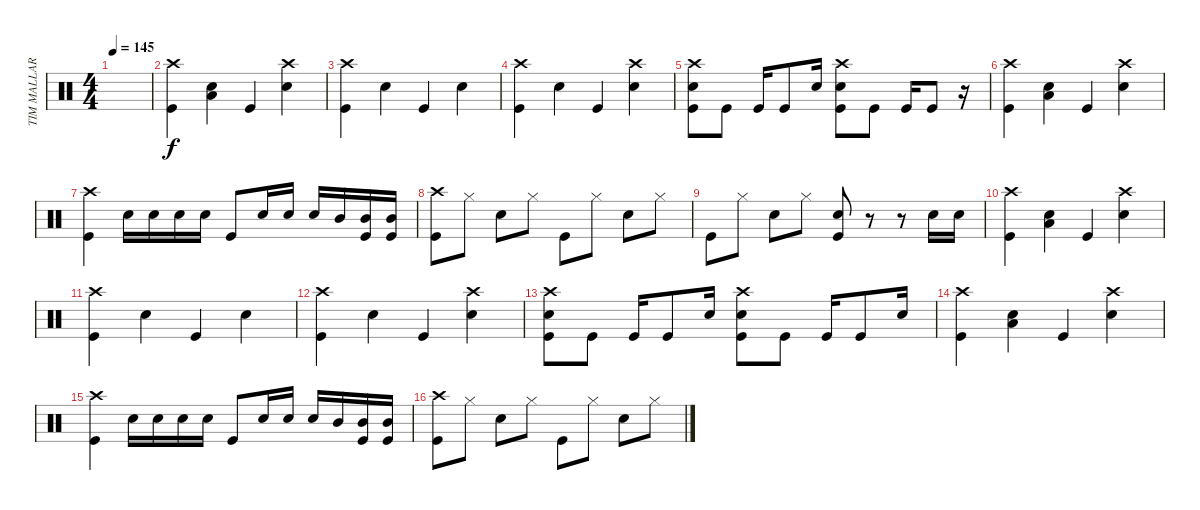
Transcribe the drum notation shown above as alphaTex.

\track ("TIM MALLARE - drums" "TIM MALLAR") {instrument percussion}
\staff {score}
\articulation defaults
\ts (4 4)
\tempo 145
\clef neutral
\ks c
|
("Crash high (hit)" "Kick (hit)").4 ("Electric Snare (hit)" "Low Tom (hit)").4 "Kick (hit)".4 ("Crash high (hit)" "Electric Snare (hit)").4 |
("Crash high (hit)" "Kick (hit)").4 "Electric Snare (hit)".4 "Kick (hit)".4 "Electric Snare (hit)".4 |
("Crash high (hit)" "Kick (hit)").4 "Electric Snare (hit)".4 "Kick (hit)".4 ("Crash high (hit)" "Electric Snare (hit)").4 |
("Crash high (hit)" "Electric Snare (hit)" "Kick (hit)").8 "Kick (hit)".8 "Kick (hit)".16 "Kick (hit)".8 "Electric Snare (hit)".16 ("Crash high (hit)" "Electric Snare (hit)" "Kick (hit)").8 "Kick (hit)".8 "Kick (hit)".16 "Kick (hit)".8 r.16 |
("Crash high (hit)" "Kick (hit)").4 ("Electric Snare (hit)" "Low Tom (hit)").4 "Kick (hit)".4 ("Crash high (hit)" "Electric Snare (hit)").4 |
("Crash high (hit)" "Kick (hit)").4 "Electric Snare (hit)".16 "Electric Snare (hit)".16 "Electric Snare (hit)".16 "Electric Snare (hit)".16 "Kick (hit)".8 "Electric Snare (hit)".16 "Electric Snare (hit)".16 "Electric Snare (hit)".16 "Mid Tom (hit)".16 ("Mid Tom (hit)" "Kick (hit)").16 ("Mid Tom (hit)" "Kick (hit)").16 |
("Crash high (hit)" "Kick (hit)").8 "Hi-Hat (closed)".8 "Electric Snare (hit)".8 "Hi-Hat (closed)".8 "Kick (hit)".8 "Hi-Hat (closed)".8 "Electric Snare (hit)".8 "Hi-Hat (closed)".8 |
"Kick (hit)".8 "Hi-Hat (closed)".8 "Electric Snare (hit)".8 "Hi-Hat (closed)".8 ("Electric Snare (hit)" "Kick (hit)").8 r.8 r.8 "Electric Snare (hit)".16 "Electric Snare (hit)".16 |
("Crash high (hit)" "Kick (hit)").4 ("Electric Snare (hit)" "Low Tom (hit)").4 "Kick (hit)".4 ("Crash high (hit)" "Electric Snare (hit)").4 |
("Crash high (hit)" "Kick (hit)").4 "Electric Snare (hit)".4 "Kick (hit)".4 "Electric Snare (hit)".4 |
("Crash high (hit)" "Kick (hit)").4 "Electric Snare (hit)".4 "Kick (hit)".4 ("Crash high (hit)" "Electric Snare (hit)").4 |
("Crash high (hit)" "Electric Snare (hit)" "Kick (hit)").8 "Kick (hit)".8 "Kick (hit)".16 "Kick (hit)".8 "Electric Snare (hit)".16 ("Crash high (hit)" "Electric Snare (hit)" "Kick (hit)").8 "Kick (hit)".8 "Kick (hit)".16 "Kick (hit)".8 "Electric Snare (hit)".16 |
("Crash high (hit)" "Kick (hit)").4 ("Electric Snare (hit)" "Low Tom (hit)").4 "Kick (hit)".4 ("Crash high (hit)" "Electric Snare (hit)").4 |
("Crash high (hit)" "Kick (hit)").4 "Electric Snare (hit)".16 "Electric Snare (hit)".16 "Electric Snare (hit)".16 "Electric Snare (hit)".16 "Kick (hit)".8 "Electric Snare (hit)".16 "Electric Snare (hit)".16 "Electric Snare (hit)".16 "Mid Tom (hit)".16 ("Mid Tom (hit)" "Kick (hit)").16 ("Mid Tom (hit)" "Kick (hit)").16 |
("Crash high (hit)" "Kick (hit)").8 "Hi-Hat (closed)".8 "Electric Snare (hit)".8 "Hi-Hat (closed)".8 "Kick (hit)".8 "Hi-Hat (closed)".8 "Electric Snare (hit)".8 "Hi-Hat (closed)".8
